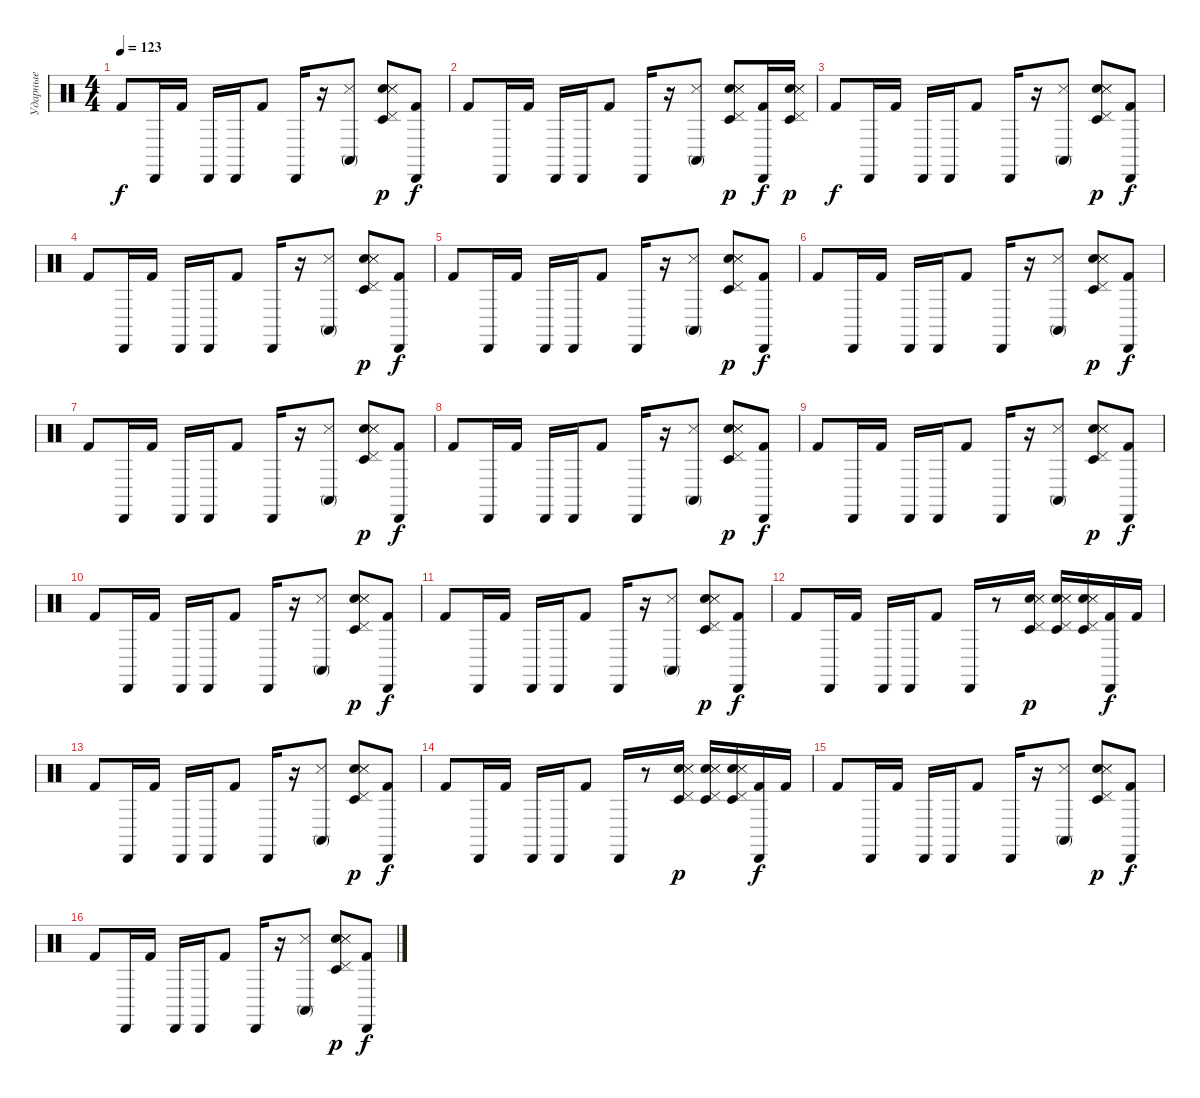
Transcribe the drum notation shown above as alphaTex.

\track ("Ударные" "Ударные") {instrument percussion}
\staff {score}
\articulation defaults
\ts (4 4)
\tempo 123
\clef neutral
\ks c "Kick (hit) 2".8{dy f} "Cabasa (hit)".16 "Kick (hit) 2".16 "Cabasa (hit)".16 "Cabasa (hit)".16 "Kick (hit) 2".8 "Cabasa (hit)".16
r.16 ("Conga high (mute)" "Metronome (hit)").8 ("Hand Clap (hit)" "Metronome (hit)" "Snare (side stick) 3" "Timbale low (hit)" "Pedal Hi-Hat (hit)").8{dy p} ("Cabasa (hit)" "Kick (hit) 2").8{dy f} |
"Kick (hit) 2".8 "Cabasa (hit)".16 "Kick (hit) 2".16 "Cabasa (hit)".16 "Cabasa (hit)".16 "Kick (hit) 2".8 "Cabasa (hit)".16 r.16 ("Conga high (mute)" "Metronome (hit)").8 ("Hand Clap (hit)" "Metronome (hit)" "Snare (side stick) 3" "Timbale low (hit)" "Pedal Hi-Hat (hit)").8{dy p} ("Cabasa (hit)" "Kick (hit) 2").16{dy f} ("Hand Clap (hit)" "Metronome (hit)" "Snare (side stick) 3" "Timbale low (hit)" "Pedal Hi-Hat (hit)").16{dy p} |
"Kick (hit) 2".8{dy f} "Cabasa (hit)".16 "Kick (hit) 2".16 "Cabasa (hit)".16 "Cabasa (hit)".16 "Kick (hit) 2".8 "Cabasa (hit)".16 r.16 ("Conga high (mute)" "Metronome (hit)").8 ("Hand Clap (hit)" "Metronome (hit)" "Snare (side stick) 3" "Timbale low (hit)" "Pedal Hi-Hat (hit)").8{dy p} ("Cabasa (hit)" "Kick (hit) 2").8{dy f} |
"Kick (hit) 2".8 "Cabasa (hit)".16 "Kick (hit) 2".16 "Cabasa (hit)".16 "Cabasa (hit)".16 "Kick (hit) 2".8 "Cabasa (hit)".16 r.16 ("Conga high (mute)" "Metronome (hit)").8 ("Hand Clap (hit)" "Metronome (hit)" "Snare (side stick) 3" "Timbale low (hit)" "Pedal Hi-Hat (hit)").8{dy p} ("Cabasa (hit)" "Kick (hit) 2").8{dy f} |
"Kick (hit) 2".8 "Cabasa (hit)".16 "Kick (hit) 2".16 "Cabasa (hit)".16 "Cabasa (hit)".16 "Kick (hit) 2".8 "Cabasa (hit)".16 r.16 ("Conga high (mute)" "Metronome (hit)").8 ("Hand Clap (hit)" "Metronome (hit)" "Snare (side stick) 3" "Timbale low (hit)" "Pedal Hi-Hat (hit)").8{dy p} ("Cabasa (hit)" "Kick (hit) 2").8{dy f} |
"Kick (hit) 2".8 "Cabasa (hit)".16 "Kick (hit) 2".16 "Cabasa (hit)".16 "Cabasa (hit)".16 "Kick (hit) 2".8 "Cabasa (hit)".16 r.16 ("Conga high (mute)" "Metronome (hit)").8 ("Hand Clap (hit)" "Metronome (hit)" "Snare (side stick) 3" "Timbale low (hit)" "Pedal Hi-Hat (hit)").8{dy p} ("Cabasa (hit)" "Kick (hit) 2").8{dy f} |
"Kick (hit) 2".8 "Cabasa (hit)".16 "Kick (hit) 2".16 "Cabasa (hit)".16 "Cabasa (hit)".16 "Kick (hit) 2".8 "Cabasa (hit)".16 r.16 ("Conga high (mute)" "Metronome (hit)").8 ("Hand Clap (hit)" "Metronome (hit)" "Snare (side stick) 3" "Timbale low (hit)" "Pedal Hi-Hat (hit)").8{dy p} ("Cabasa (hit)" "Kick (hit) 2").8{dy f} |
"Kick (hit) 2".8 "Cabasa (hit)".16 "Kick (hit) 2".16 "Cabasa (hit)".16 "Cabasa (hit)".16 "Kick (hit) 2".8 "Cabasa (hit)".16 r.16 ("Conga high (mute)" "Metronome (hit)").8 ("Hand Clap (hit)" "Metronome (hit)" "Snare (side stick) 3" "Timbale low (hit)" "Pedal Hi-Hat (hit)").8{dy p} ("Cabasa (hit)" "Kick (hit) 2").8{dy f} |
"Kick (hit) 2".8 "Cabasa (hit)".16 "Kick (hit) 2".16 "Cabasa (hit)".16 "Cabasa (hit)".16 "Kick (hit) 2".8 "Cabasa (hit)".16 r.16 ("Conga high (mute)" "Metronome (hit)").8 ("Hand Clap (hit)" "Metronome (hit)" "Snare (side stick) 3" "Timbale low (hit)" "Pedal Hi-Hat (hit)").8{dy p} ("Cabasa (hit)" "Kick (hit) 2").8{dy f} |
"Kick (hit) 2".8 "Cabasa (hit)".16 "Kick (hit) 2".16 "Cabasa (hit)".16 "Cabasa (hit)".16 "Kick (hit) 2".8 "Cabasa (hit)".16 r.16 ("Conga high (mute)" "Metronome (hit)").8 ("Hand Clap (hit)" "Metronome (hit)" "Snare (side stick) 3" "Timbale low (hit)" "Pedal Hi-Hat (hit)").8{dy p} ("Cabasa (hit)" "Kick (hit) 2").8{dy f} |
"Kick (hit) 2".8 "Cabasa (hit)".16 "Kick (hit) 2".16 "Cabasa (hit)".16 "Cabasa (hit)".16 "Kick (hit) 2".8 "Cabasa (hit)".16 r.16 ("Conga high (mute)" "Metronome (hit)").8 ("Hand Clap (hit)" "Metronome (hit)" "Snare (side stick) 3" "Timbale low (hit)" "Pedal Hi-Hat (hit)").8{dy p} ("Cabasa (hit)" "Kick (hit) 2").8{dy f} |
"Kick (hit) 2".8 "Cabasa (hit)".16 "Kick (hit) 2".16 "Cabasa (hit)".16 "Cabasa (hit)".16 "Kick (hit) 2".8 "Cabasa (hit)".16 r.8 ("Hand Clap (hit)" "Metronome (hit)" "Snare (side stick) 3" "Timbale low (hit)" "Pedal Hi-Hat (hit)").16{dy p} ("Hand Clap (hit)" "Metronome (hit)" "Snare (side stick) 3" "Timbale low (hit)" "Pedal Hi-Hat (hit)").16 ("Hand Clap (hit)" "Metronome (hit)" "Snare (side stick) 3" "Timbale low (hit)" "Pedal Hi-Hat (hit)").16 ("Cabasa (hit)" "Kick (hit) 2").16{dy f} "Kick (hit) 2".16 |
"Kick (hit) 2".8 "Cabasa (hit)".16 "Kick (hit) 2".16 "Cabasa (hit)".16 "Cabasa (hit)".16 "Kick (hit) 2".8 "Cabasa (hit)".16 r.16 ("Conga high (mute)" "Metronome (hit)").8 ("Hand Clap (hit)" "Metronome (hit)" "Snare (side stick) 3" "Timbale low (hit)" "Pedal Hi-Hat (hit)").8{dy p} ("Cabasa (hit)" "Kick (hit) 2").8{dy f} |
"Kick (hit) 2".8 "Cabasa (hit)".16 "Kick (hit) 2".16 "Cabasa (hit)".16 "Cabasa (hit)".16 "Kick (hit) 2".8 "Cabasa (hit)".16 r.8 ("Hand Clap (hit)" "Metronome (hit)" "Snare (side stick) 3" "Timbale low (hit)" "Pedal Hi-Hat (hit)").16{dy p} ("Hand Clap (hit)" "Metronome (hit)" "Snare (side stick) 3" "Timbale low (hit)" "Pedal Hi-Hat (hit)").16 ("Hand Clap (hit)" "Metronome (hit)" "Snare (side stick) 3" "Timbale low (hit)" "Pedal Hi-Hat (hit)").16 ("Cabasa (hit)" "Kick (hit) 2").16{dy f} "Kick (hit) 2".16 |
"Kick (hit) 2".8 "Cabasa (hit)".16 "Kick (hit) 2".16 "Cabasa (hit)".16 "Cabasa (hit)".16 "Kick (hit) 2".8 "Cabasa (hit)".16 r.16 ("Conga high (mute)" "Metronome (hit)").8 ("Hand Clap (hit)" "Metronome (hit)" "Snare (side stick) 3" "Timbale low (hit)" "Pedal Hi-Hat (hit)").8{dy p} ("Cabasa (hit)" "Kick (hit) 2").8{dy f} |
"Kick (hit) 2".8 "Cabasa (hit)".16 "Kick (hit) 2".16 "Cabasa (hit)".16 "Cabasa (hit)".16 "Kick (hit) 2".8 "Cabasa (hit)".16 r.16 ("Conga high (mute)" "Metronome (hit)").8 ("Hand Clap (hit)" "Metronome (hit)" "Snare (side stick) 3" "Timbale low (hit)" "Pedal Hi-Hat (hit)").8{dy p} ("Cabasa (hit)" "Kick (hit) 2").8{dy f}
